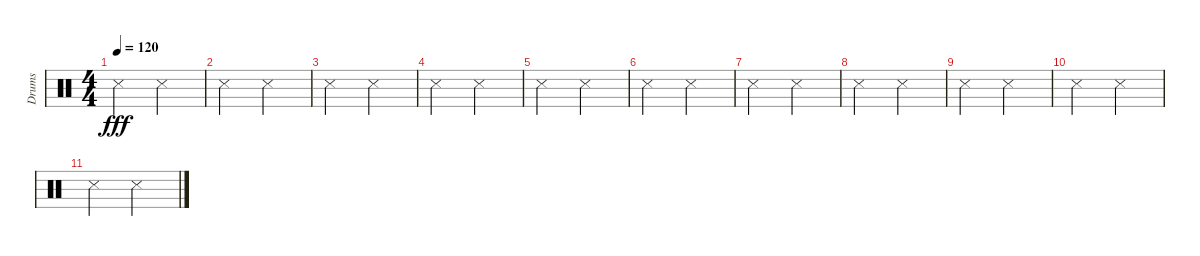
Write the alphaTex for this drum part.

\track ("Drums" "Drums") {instrument percussion}
\staff {score}
\articulation defaults
\ts (4 4)
\tempo 120
\clef neutral
\ks c "Metronome (hit)".2{dy fff} "Snare (side stick) 3".2
|
"Metronome (hit)".2 "Snare (side stick) 3".2 |
"Metronome (hit)".2 "Snare (side stick) 3".2 |
"Metronome (hit)".2 "Snare (side stick) 3".2 |
"Metronome (hit)".2 "Snare (side stick) 3".2 |
"Metronome (hit)".2 "Snare (side stick) 3".2 |
"Metronome (hit)".2 "Snare (side stick) 3".2 |
"Metronome (hit)".2 "Snare (side stick) 3".2 |
"Metronome (hit)".2 "Snare (side stick) 3".2 |
"Metronome (hit)".2 "Snare (side stick) 3".2 |
"Metronome (hit)".2 "Snare (side stick) 3".2
